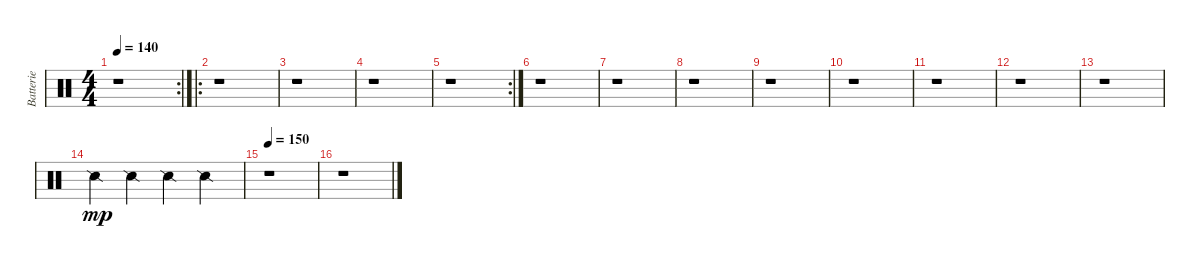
\track ("Batterie" "Batterie") {instrument percussion}
\staff {score}
\articulation defaults
\rc 2
\ts (4 4)
\tempo 140
\clef neutral
\ks c
r.1{dy mp} |
\ro
r.1 |
r.1 |
r.1 |
\rc 2
r.1 |
r.1 |
r.1 |
r.1 |
r.1 |
r.1 |
r.1 |
r.1 |
r.1 |
"Snare (side stick) 2".4 "Snare (side stick) 2".4 "Snare (side stick) 2".4 "Snare (side stick) 2".4 |
\tempo 150
r.1 |
r.1
